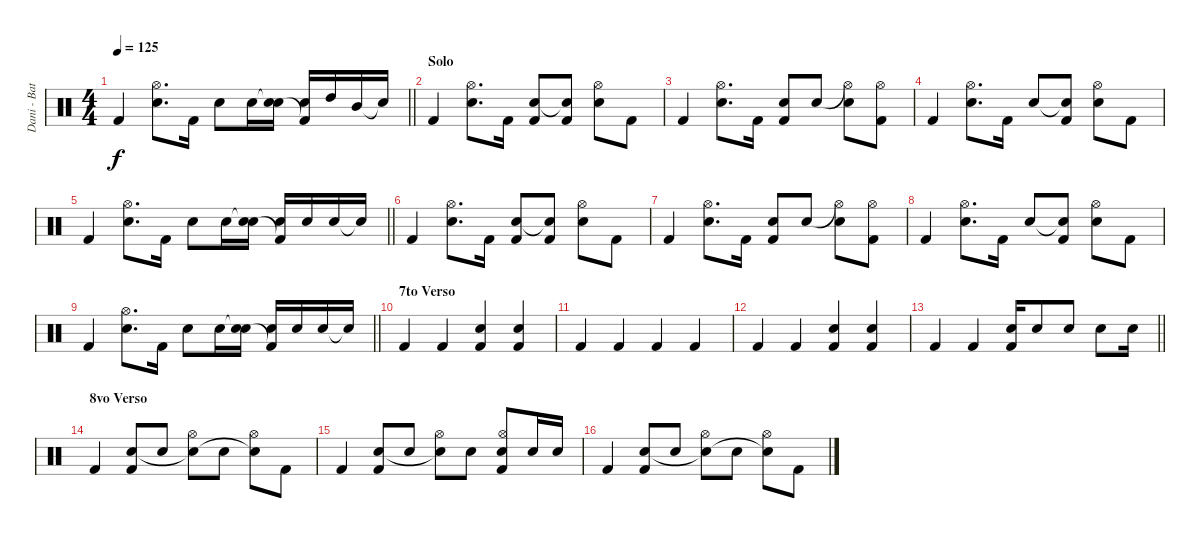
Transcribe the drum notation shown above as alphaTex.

\track ("Dani - Batería" "Dani - Bat") {instrument percussion}
\staff {score}
\articulation defaults
\ts (4 4)
\tempo 125
\clef neutral
\barLineRight lightlight
\ks c "Kick (hit) 2".4{dy f}
("Hi-Hat (open)" "Electric Snare (hit)").8{d} "Kick (hit) 2".16 "Electric Snare (hit)".8 "Electric Snare (hit)".16 ("Snare (hit)"{t} "Electric Snare (hit)").16 ("Electric Snare (hit)" "Kick (hit) 2"{t}).16 "High Tom (hit)".16 "Mid Tom (hit)".16 "Snare (hit)"{t}.16 |
\section ("" "Solo")
"Kick (hit) 2".4 ("Hi-Hat (open)" "Electric Snare (hit)").8{d} "Kick (hit) 2".16 ("Electric Snare (hit)" "Kick (hit) 2").8 ("Snare (hit)"{t} "Kick (hit) 2").8 ("Hi-Hat (open)" "Electric Snare (hit)").8 "Kick (hit) 2".8 |
"Kick (hit) 2".4 ("Hi-Hat (open)" "Electric Snare (hit)").8{d} "Kick (hit) 2".16 ("Electric Snare (hit)" "Kick (hit) 2").8 "Electric Snare (hit)".8 ("Hi-Hat (open)"{t} "Electric Snare (hit)").8 ("Hi-Hat (open)" "Kick (hit) 2").8 |
"Kick (hit) 2".4 ("Hi-Hat (open)" "Electric Snare (hit)").8{d} "Kick (hit) 2".16 "Electric Snare (hit)".8 ("Snare (hit)"{t} "Kick (hit) 2").8 ("Hi-Hat (open)" "Electric Snare (hit)").8 "Kick (hit) 2".8 |
\barLineRight lightlight "Kick (hit) 2".4
("Hi-Hat (open)" "Electric Snare (hit)").8{d} "Kick (hit) 2".16 "Electric Snare (hit)".8 "Electric Snare (hit)".16 ("Snare (hit)"{t} "Electric Snare (hit)").16 ("Electric Snare (hit)" "Kick (hit) 2"{t}).16 "Electric Snare (hit)".16 "Electric Snare (hit)".16 "Snare (hit)"{t}.16 |
"Kick (hit) 2".4 ("Hi-Hat (open)" "Electric Snare (hit)").8{d} "Kick (hit) 2".16 ("Electric Snare (hit)" "Kick (hit) 2").8 ("Snare (hit)"{t} "Kick (hit) 2").8 ("Hi-Hat (open)" "Electric Snare (hit)").8 "Kick (hit) 2".8 |
"Kick (hit) 2".4 ("Hi-Hat (open)" "Electric Snare (hit)").8{d} "Kick (hit) 2".16 ("Electric Snare (hit)" "Kick (hit) 2").8 "Electric Snare (hit)".8 ("Hi-Hat (open)"{t} "Electric Snare (hit)").8 ("Hi-Hat (open)" "Kick (hit) 2").8 |
"Kick (hit) 2".4 ("Hi-Hat (open)" "Electric Snare (hit)").8{d} "Kick (hit) 2".16 "Electric Snare (hit)".8 ("Snare (hit)"{t} "Kick (hit) 2").8 ("Hi-Hat (open)" "Electric Snare (hit)").8 "Kick (hit) 2".8 |
\barLineRight lightlight "Kick (hit) 2".4
("Hi-Hat (open)" "Electric Snare (hit)").8{d} "Kick (hit) 2".16 "Electric Snare (hit)".8 "Electric Snare (hit)".16 ("Snare (hit)"{t} "Electric Snare (hit)").16 ("Electric Snare (hit)" "Kick (hit) 2"{t}).16 "Electric Snare (hit)".16 "Electric Snare (hit)".16 "Snare (hit)"{t}.16 |
\section ("" "7to Verso")
"Kick (hit) 2".4 "Kick (hit) 2".4 ("Kick (hit) 2" "Snare (hit) 2").4 ("Kick (hit) 2" "Snare (hit) 2").4 |
"Kick (hit) 2".4 "Kick (hit) 2".4 "Kick (hit) 2".4 "Kick (hit) 2".4 |
"Kick (hit) 2".4 "Kick (hit) 2".4 ("Kick (hit) 2" "Snare (hit) 2").4 ("Kick (hit) 2" "Snare (hit) 2").4 |
\barLineRight lightlight "Kick (hit) 2".4 "Kick (hit) 2".4
("Kick (hit) 2" "Electric Snare (hit)").16 "Electric Snare (hit)".8 "Electric Snare (hit)".8 "Electric Snare (hit)".8 "Electric Snare (hit)".16 |
\section ("" "8vo Verso")
"Kick (hit) 2".4 ("Kick (hit) 2" "Electric Snare (hit)").8 "Electric Snare (hit)".8 ("Hi-Hat (open)" "Snare (hit)"{t}).8 "Electric Snare (hit)".8 ("Hi-Hat (open)" "Snare (hit)"{t}).8 "Kick (hit) 2".8 |
"Kick (hit) 2".4 ("Kick (hit) 2" "Electric Snare (hit)").8 "Electric Snare (hit)".8 ("Hi-Hat (open)" "Snare (hit)"{t}).8 "Electric Snare (hit)".8 ("Hi-Hat (open)" "Kick (hit) 2" "Snare (hit)").8 "Electric Snare (hit)".16 "Electric Snare (hit)".16 |
"Kick (hit) 2".4 ("Kick (hit) 2" "Electric Snare (hit)").8 "Electric Snare (hit)".8 ("Hi-Hat (open)" "Snare (hit)"{t}).8 "Electric Snare (hit)".8 ("Hi-Hat (open)" "Snare (hit)"{t}).8 "Kick (hit) 2".8
